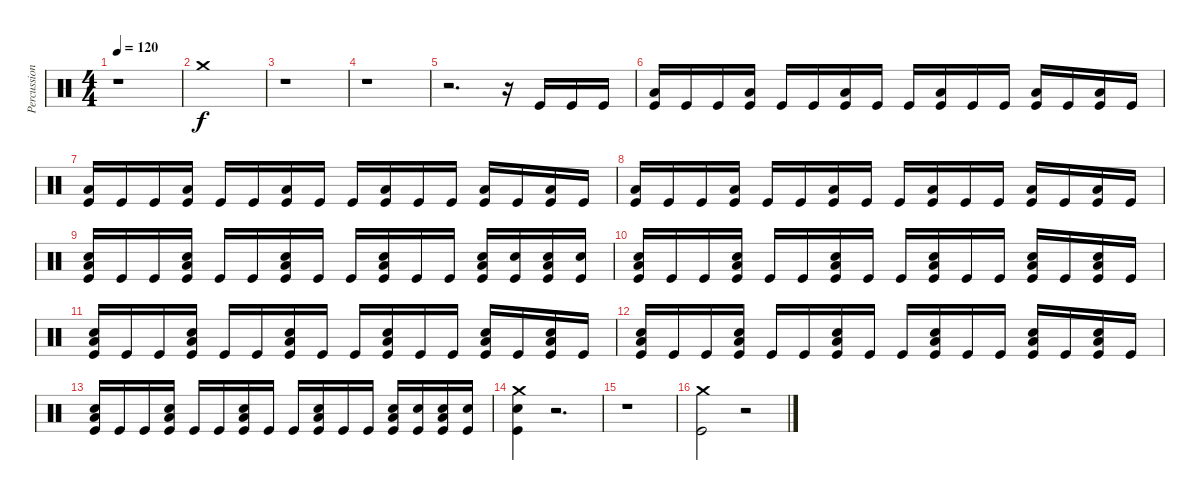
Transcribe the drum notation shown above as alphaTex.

\track ("Percussion" "Percussion") {instrument percussion}
\staff {score}
\articulation defaults
\ts (4 4)
\tempo 120
\clef neutral
\ks c
r.1{dy f} |
"Crash medium (hit)".1 |
r.1 |
r.1 |
r.2{d} r.16 "Kick (hit)".16 "Kick (hit)".16 "Kick (hit)".16 |
("Low Tom (hit)" "Kick (hit)").16 "Kick (hit)".16 "Kick (hit)".16 ("Low Tom (hit)" "Kick (hit)").16 "Kick (hit)".16 "Kick (hit)".16 ("Low Tom (hit)" "Kick (hit)").16 "Kick (hit)".16 "Kick (hit)".16 ("Low Tom (hit)" "Kick (hit)").16 "Kick (hit)".16 "Kick (hit)".16 ("Low Tom (hit)" "Kick (hit)").16 "Kick (hit)".16 ("Low Tom (hit)" "Kick (hit)").16 "Kick (hit)".16 |
("Low Tom (hit)" "Kick (hit)").16 "Kick (hit)".16 "Kick (hit)".16 ("Low Tom (hit)" "Kick (hit)").16 "Kick (hit)".16 "Kick (hit)".16 ("Low Tom (hit)" "Kick (hit)").16 "Kick (hit)".16 "Kick (hit)".16 ("Low Tom (hit)" "Kick (hit)").16 "Kick (hit)".16 "Kick (hit)".16 ("Low Tom (hit)" "Kick (hit)").16 "Kick (hit)".16 ("Low Tom (hit)" "Kick (hit)").16 "Kick (hit)".16 |
("Low Tom (hit)" "Kick (hit)").16 "Kick (hit)".16 "Kick (hit)".16 ("Low Tom (hit)" "Kick (hit)").16 "Kick (hit)".16 "Kick (hit)".16 ("Low Tom (hit)" "Kick (hit)").16 "Kick (hit)".16 "Kick (hit)".16 ("Low Tom (hit)" "Kick (hit)").16 "Kick (hit)".16 "Kick (hit)".16 ("Low Tom (hit)" "Kick (hit)").16 "Kick (hit)".16 ("Low Tom (hit)" "Kick (hit)").16 "Kick (hit)".16 |
("Low Tom (hit)" "Electric Snare (hit)" "Kick (hit)").16 "Kick (hit)".16 "Kick (hit)".16 ("Low Tom (hit)" "Electric Snare (hit)" "Kick (hit)").16 "Kick (hit)".16 "Kick (hit)".16 ("Low Tom (hit)" "Electric Snare (hit)" "Kick (hit)").16 "Kick (hit)".16 "Kick (hit)".16 ("Low Tom (hit)" "Electric Snare (hit)" "Kick (hit)").16 "Kick (hit)".16 "Kick (hit)".16 ("Low Tom (hit)" "Electric Snare (hit)" "Kick (hit)").16 ("Electric Snare (hit)" "Kick (hit)").16 ("Low Tom (hit)" "Electric Snare (hit)" "Kick (hit)").16 ("Electric Snare (hit)" "Kick (hit)").16 |
("Low Tom (hit)" "Electric Snare (hit)" "Kick (hit)").16 "Kick (hit)".16 "Kick (hit)".16 ("Low Tom (hit)" "Electric Snare (hit)" "Kick (hit)").16 "Kick (hit)".16 "Kick (hit)".16 ("Low Tom (hit)" "Electric Snare (hit)" "Kick (hit)").16 "Kick (hit)".16 "Kick (hit)".16 ("Low Tom (hit)" "Electric Snare (hit)" "Kick (hit)").16 "Kick (hit)".16 "Kick (hit)".16 ("Low Tom (hit)" "Electric Snare (hit)" "Kick (hit)").16 "Kick (hit)".16 ("Low Tom (hit)" "Electric Snare (hit)" "Kick (hit)").16 "Kick (hit)".16 |
("Low Tom (hit)" "Electric Snare (hit)" "Kick (hit)").16 "Kick (hit)".16 "Kick (hit)".16 ("Low Tom (hit)" "Electric Snare (hit)" "Kick (hit)").16 "Kick (hit)".16 "Kick (hit)".16 ("Low Tom (hit)" "Electric Snare (hit)" "Kick (hit)").16 "Kick (hit)".16 "Kick (hit)".16 ("Low Tom (hit)" "Electric Snare (hit)" "Kick (hit)").16 "Kick (hit)".16 "Kick (hit)".16 ("Low Tom (hit)" "Electric Snare (hit)" "Kick (hit)").16 "Kick (hit)".16 ("Low Tom (hit)" "Electric Snare (hit)" "Kick (hit)").16 "Kick (hit)".16 |
("Low Tom (hit)" "Electric Snare (hit)" "Kick (hit)").16 "Kick (hit)".16 "Kick (hit)".16 ("Low Tom (hit)" "Electric Snare (hit)" "Kick (hit)").16 "Kick (hit)".16 "Kick (hit)".16 ("Low Tom (hit)" "Electric Snare (hit)" "Kick (hit)").16 "Kick (hit)".16 "Kick (hit)".16 ("Low Tom (hit)" "Electric Snare (hit)" "Kick (hit)").16 "Kick (hit)".16 "Kick (hit)".16 ("Low Tom (hit)" "Electric Snare (hit)" "Kick (hit)").16 "Kick (hit)".16 ("Low Tom (hit)" "Electric Snare (hit)" "Kick (hit)").16 "Kick (hit)".16 |
("Low Tom (hit)" "Electric Snare (hit)" "Kick (hit)").16 "Kick (hit)".16 "Kick (hit)".16 ("Low Tom (hit)" "Electric Snare (hit)" "Kick (hit)").16 "Kick (hit)".16 "Kick (hit)".16 ("Low Tom (hit)" "Electric Snare (hit)" "Kick (hit)").16 "Kick (hit)".16 "Kick (hit)".16 ("Low Tom (hit)" "Electric Snare (hit)" "Kick (hit)").16 "Kick (hit)".16 "Kick (hit)".16 ("Low Tom (hit)" "Electric Snare (hit)" "Kick (hit)").16 ("Electric Snare (hit)" "Kick (hit)").16 ("Low Tom (hit)" "Electric Snare (hit)" "Kick (hit)").16 ("Electric Snare (hit)" "Kick (hit)").16 |
("Crash medium (hit)" "Electric Snare (hit)" "Kick (hit)").4 r.2{d} |
r.1 |
("Crash medium (hit)" "Kick (hit)").2 r.2
